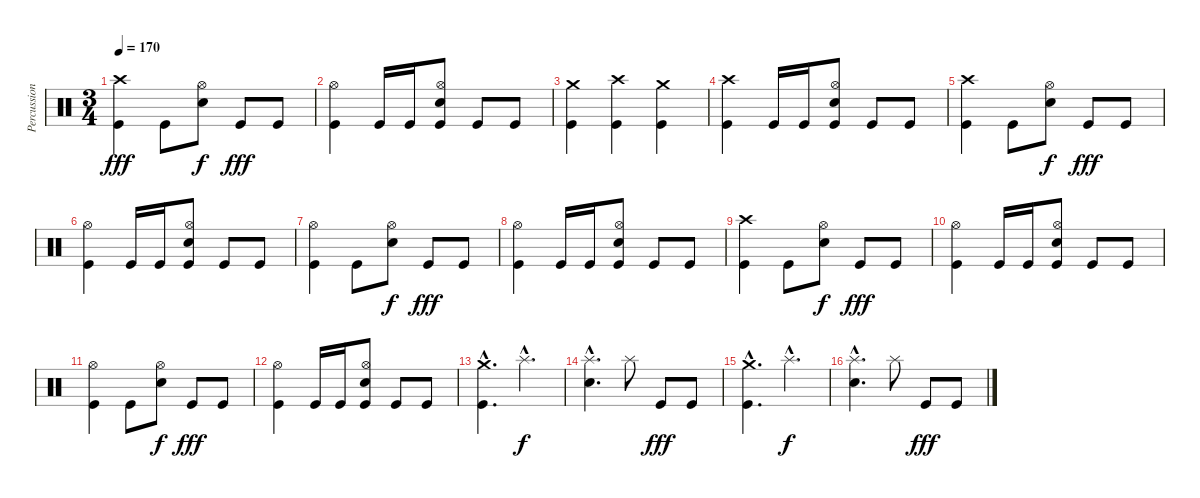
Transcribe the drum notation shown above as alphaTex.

\track ("Percussion" "Percussion") {instrument percussion}
\staff {score}
\articulation defaults
\ts (3 4)
\tempo 170
\clef neutral
\ks c
("Crash high (hit)" "Kick (hit)").4{dy fff} "Kick (hit)".8 ("Hi-Hat (open)" "Electric Snare (hit)").8{dy f} "Kick (hit)".8{dy fff} "Kick (hit)".8 |
("Hi-Hat (open)" "Kick (hit)").4 "Kick (hit)".16 "Kick (hit)".16 ("Hi-Hat (open)" "Electric Snare (hit)" "Kick (hit)").8 "Kick (hit)".8 "Kick (hit)".8 |
("Crash medium (hit)" "Kick (hit)").4 ("Crash high (hit)" "Kick (hit)").4 ("Crash medium (hit)" "Kick (hit)").4 |
("Crash high (hit)" "Kick (hit)").4 "Kick (hit)".16 "Kick (hit)".16 ("Hi-Hat (open)" "Electric Snare (hit)" "Kick (hit)").8 "Kick (hit)".8 "Kick (hit)".8 |
("Crash high (hit)" "Kick (hit)").4 "Kick (hit)".8 ("Hi-Hat (open)" "Electric Snare (hit)").8{dy f} "Kick (hit)".8{dy fff} "Kick (hit)".8 |
("Hi-Hat (open)" "Kick (hit)").4 "Kick (hit)".16 "Kick (hit)".16 ("Hi-Hat (open)" "Electric Snare (hit)" "Kick (hit)").8 "Kick (hit)".8 "Kick (hit)".8 |
("Hi-Hat (open)" "Kick (hit)").4 "Kick (hit)".8 ("Hi-Hat (open)" "Electric Snare (hit)").8{dy f} "Kick (hit)".8{dy fff} "Kick (hit)".8 |
("Hi-Hat (open)" "Kick (hit)").4 "Kick (hit)".16 "Kick (hit)".16 ("Hi-Hat (open)" "Electric Snare (hit)" "Kick (hit)").8 "Kick (hit)".8 "Kick (hit)".8 |
("Crash high (hit)" "Kick (hit)").4 "Kick (hit)".8 ("Hi-Hat (open)" "Electric Snare (hit)").8{dy f} "Kick (hit)".8{dy fff} "Kick (hit)".8 |
("Hi-Hat (open)" "Kick (hit)").4 "Kick (hit)".16 "Kick (hit)".16 ("Hi-Hat (open)" "Electric Snare (hit)" "Kick (hit)").8 "Kick (hit)".8 "Kick (hit)".8 |
("Hi-Hat (open)" "Kick (hit)").4 "Kick (hit)".8 ("Hi-Hat (open)" "Electric Snare (hit)").8{dy f} "Kick (hit)".8{dy fff} "Kick (hit)".8 |
("Hi-Hat (open)" "Kick (hit)").4 "Kick (hit)".16 "Kick (hit)".16 ("Hi-Hat (open)" "Electric Snare (hit)" "Kick (hit)").8 "Kick (hit)".8 "Kick (hit)".8 |
("Crash medium (hit)"{hac} "Kick (hit)"{hac}).4{d} "Splash (hit)"{hac}.4{d dy f} |
("Splash (hit)"{hac} "Electric Snare (hit)"{hac}).4{d} "Splash (hit)".8 "Kick (hit)".8{dy fff} "Kick (hit)".8 |
("Crash medium (hit)"{hac} "Kick (hit)"{hac}).4{d} "Splash (hit)"{hac}.4{d dy f} |
("Splash (hit)"{hac} "Electric Snare (hit)"{hac}).4{d} "Splash (hit)".8 "Kick (hit)".8{dy fff} "Kick (hit)".8
